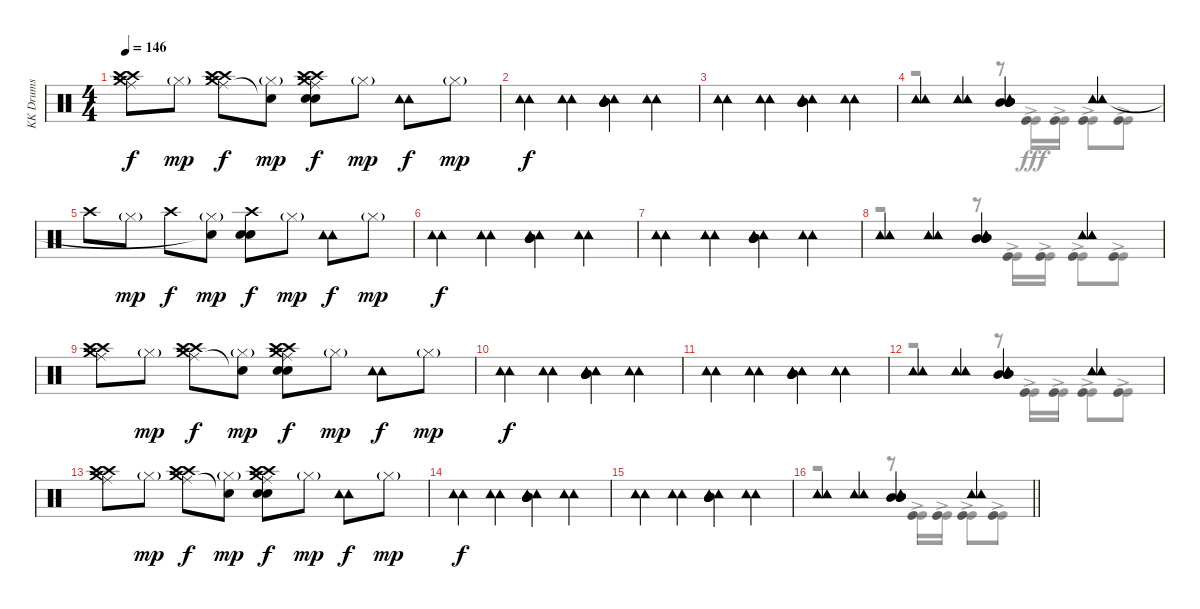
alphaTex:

\track ("KK Drums" "KK Drums") {instrument percussion}
\staff {score}
\articulation defaults
\voice
\ts (4 4)
\tempo 146
\clef neutral
\ks c
("Crash high (hit)" "Ride (middle)" "Crash medium (hit)" "Crash high (hit)").8{dy f} "Hi-Hat (closed)"{g}.8{dy mp} ("Crash high (hit)" "Ride (middle)" "Crash medium (hit)" "Crash high (hit)").8{dy f} ("Hi-Hat (closed)"{g} "Snare (hit)"{t}).8{dy mp} ("Crash high (hit)" "Ride (middle)" "Snare (hit) 2" "Snare (hit) 2" "Crash medium (hit)" "Crash high (hit)").8{dy f} "Hi-Hat (closed)"{g}.8{dy mp} ("Tambourine (hit)" "Tambourine (hit)").8{dy f} "Hi-Hat (closed)"{g}.8{dy mp} |
("Tambourine (hit)" "Tambourine (hit)").4{dy f} ("Tambourine (hit)" "Tambourine (hit)").4 ("Mid Tom (hit)" "Mid Tom (hit)" "Mid Tom (hit)" "Tambourine (hit)" "Tambourine (hit)").4 ("Tambourine (hit)" "Tambourine (hit)").4 |
("Tambourine (hit)" "Tambourine (hit)").4 ("Tambourine (hit)" "Tambourine (hit)").4 ("Mid Tom (hit)" "Mid Tom (hit)" "Mid Tom (hit)" "Tambourine (hit)" "Tambourine (hit)").4 ("Tambourine (hit)" "Tambourine (hit)").4 |
("Tambourine (hit)" "Tambourine (hit)").4 ("Tambourine (hit)" "Tambourine (hit)").4 ("Mid Tom (hit)" "Mid Tom (hit)" "Mid Tom (hit)" "Tambourine (hit)" "Tambourine (hit)").4 ("Tambourine (hit)" "Tambourine (hit)").4 |
"Crash high (hit)".8 "Hi-Hat (closed)"{g}.8{dy mp} "Crash high (hit)".8{dy f} ("Hi-Hat (closed)"{g} "Snare (hit)"{t}).8{dy mp} ("Snare (hit) 2" "Snare (hit) 2" "Crash high (hit)").8{dy f} "Hi-Hat (closed)"{g}.8{dy mp} ("Tambourine (hit)" "Tambourine (hit)").8{dy f} "Hi-Hat (closed)"{g}.8{dy mp} |
("Tambourine (hit)" "Tambourine (hit)").4{dy f} ("Tambourine (hit)" "Tambourine (hit)").4 ("Mid Tom (hit)" "Mid Tom (hit)" "Mid Tom (hit)" "Tambourine (hit)" "Tambourine (hit)").4 ("Tambourine (hit)" "Tambourine (hit)").4 |
("Tambourine (hit)" "Tambourine (hit)").4 ("Tambourine (hit)" "Tambourine (hit)").4 ("Mid Tom (hit)" "Mid Tom (hit)" "Mid Tom (hit)" "Tambourine (hit)" "Tambourine (hit)").4 ("Tambourine (hit)" "Tambourine (hit)").4 |
("Tambourine (hit)" "Tambourine (hit)").4 ("Tambourine (hit)" "Tambourine (hit)").4 ("Mid Tom (hit)" "Mid Tom (hit)" "Mid Tom (hit)" "Tambourine (hit)" "Tambourine (hit)").4 ("Tambourine (hit)" "Tambourine (hit)").4 |
("Crash high (hit)" "Ride (middle)" "Crash medium (hit)" "Crash high (hit)").8 "Hi-Hat (closed)"{g}.8{dy mp} ("Crash high (hit)" "Ride (middle)" "Crash medium (hit)" "Crash high (hit)").8{dy f} ("Hi-Hat (closed)"{g} "Snare (hit)"{t}).8{dy mp} ("Crash high (hit)" "Ride (middle)" "Snare (hit) 2" "Snare (hit) 2" "Crash medium (hit)" "Crash high (hit)").8{dy f} "Hi-Hat (closed)"{g}.8{dy mp} ("Tambourine (hit)" "Tambourine (hit)").8{dy f} "Hi-Hat (closed)"{g}.8{dy mp} |
("Tambourine (hit)" "Tambourine (hit)").4{dy f} ("Tambourine (hit)" "Tambourine (hit)").4 ("Mid Tom (hit)" "Mid Tom (hit)" "Mid Tom (hit)" "Tambourine (hit)" "Tambourine (hit)").4 ("Tambourine (hit)" "Tambourine (hit)").4 |
("Tambourine (hit)" "Tambourine (hit)").4 ("Tambourine (hit)" "Tambourine (hit)").4 ("Mid Tom (hit)" "Mid Tom (hit)" "Mid Tom (hit)" "Tambourine (hit)" "Tambourine (hit)").4 ("Tambourine (hit)" "Tambourine (hit)").4 |
("Tambourine (hit)" "Tambourine (hit)").4 ("Tambourine (hit)" "Tambourine (hit)").4 ("Mid Tom (hit)" "Mid Tom (hit)" "Mid Tom (hit)" "Tambourine (hit)" "Tambourine (hit)").4 ("Tambourine (hit)" "Tambourine (hit)").4 |
("Crash high (hit)" "Ride (middle)" "Crash medium (hit)" "Crash high (hit)").8 "Hi-Hat (closed)"{g}.8{dy mp} ("Crash high (hit)" "Ride (middle)" "Crash medium (hit)" "Crash high (hit)").8{dy f} ("Hi-Hat (closed)"{g} "Snare (hit)"{t}).8{dy mp} ("Crash high (hit)" "Ride (middle)" "Snare (hit) 2" "Snare (hit) 2" "Crash medium (hit)" "Crash high (hit)").8{dy f} "Hi-Hat (closed)"{g}.8{dy mp} ("Tambourine (hit)" "Tambourine (hit)").8{dy f} "Hi-Hat (closed)"{g}.8{dy mp} |
("Tambourine (hit)" "Tambourine (hit)").4{dy f} ("Tambourine (hit)" "Tambourine (hit)").4 ("Mid Tom (hit)" "Mid Tom (hit)" "Mid Tom (hit)" "Tambourine (hit)" "Tambourine (hit)").4 ("Tambourine (hit)" "Tambourine (hit)").4 |
("Tambourine (hit)" "Tambourine (hit)").4 ("Tambourine (hit)" "Tambourine (hit)").4 ("Mid Tom (hit)" "Mid Tom (hit)" "Mid Tom (hit)" "Tambourine (hit)" "Tambourine (hit)").4 ("Tambourine (hit)" "Tambourine (hit)").4 |
\barLineRight lightlight
("Tambourine (hit)" "Tambourine (hit)").4 ("Tambourine (hit)" "Tambourine (hit)").4 ("Mid Tom (hit)" "Mid Tom (hit)" "Mid Tom (hit)" "Tambourine (hit)" "Tambourine (hit)").4 ("Tambourine (hit)" "Tambourine (hit)").4
\voice
\clef neutral
\ottava regular
\simile none
\ks c
|
|
|
r.2 r.8 ("Kick (hit)"{ac} "Kick (hit)"{ac} "Kick (hit)"{ac}).16{dy fff} ("Kick (hit)"{ac} "Kick (hit)"{ac} "Kick (hit)"{ac}).16 ("Kick (hit)"{ac} "Kick (hit)"{ac} "Kick (hit)"{ac}).8 ("Kick (hit)"{ac} "Kick (hit)"{ac} "Kick (hit)"{ac}).8 |
|
|
|
r.2 r.8 ("Kick (hit)"{ac} "Kick (hit)"{ac} "Kick (hit)"{ac}).16 ("Kick (hit)"{ac} "Kick (hit)"{ac} "Kick (hit)"{ac}).16 ("Kick (hit)"{ac} "Kick (hit)"{ac} "Kick (hit)"{ac}).8 ("Kick (hit)"{ac} "Kick (hit)"{ac} "Kick (hit)"{ac}).8 |
|
|
|
r.2 r.8 ("Kick (hit)"{ac} "Kick (hit)"{ac} "Kick (hit)"{ac}).16 ("Kick (hit)"{ac} "Kick (hit)"{ac} "Kick (hit)"{ac}).16 ("Kick (hit)"{ac} "Kick (hit)"{ac} "Kick (hit)"{ac}).8 ("Kick (hit)"{ac} "Kick (hit)"{ac} "Kick (hit)"{ac}).8 |
|
|
|
\barLineRight lightlight
r.2 r.8 ("Kick (hit)"{ac} "Kick (hit)"{ac} "Kick (hit)"{ac}).16 ("Kick (hit)"{ac} "Kick (hit)"{ac} "Kick (hit)"{ac}).16 ("Kick (hit)"{ac} "Kick (hit)"{ac} "Kick (hit)"{ac}).8 ("Kick (hit)"{ac} "Kick (hit)"{ac} "Kick (hit)"{ac}).8
